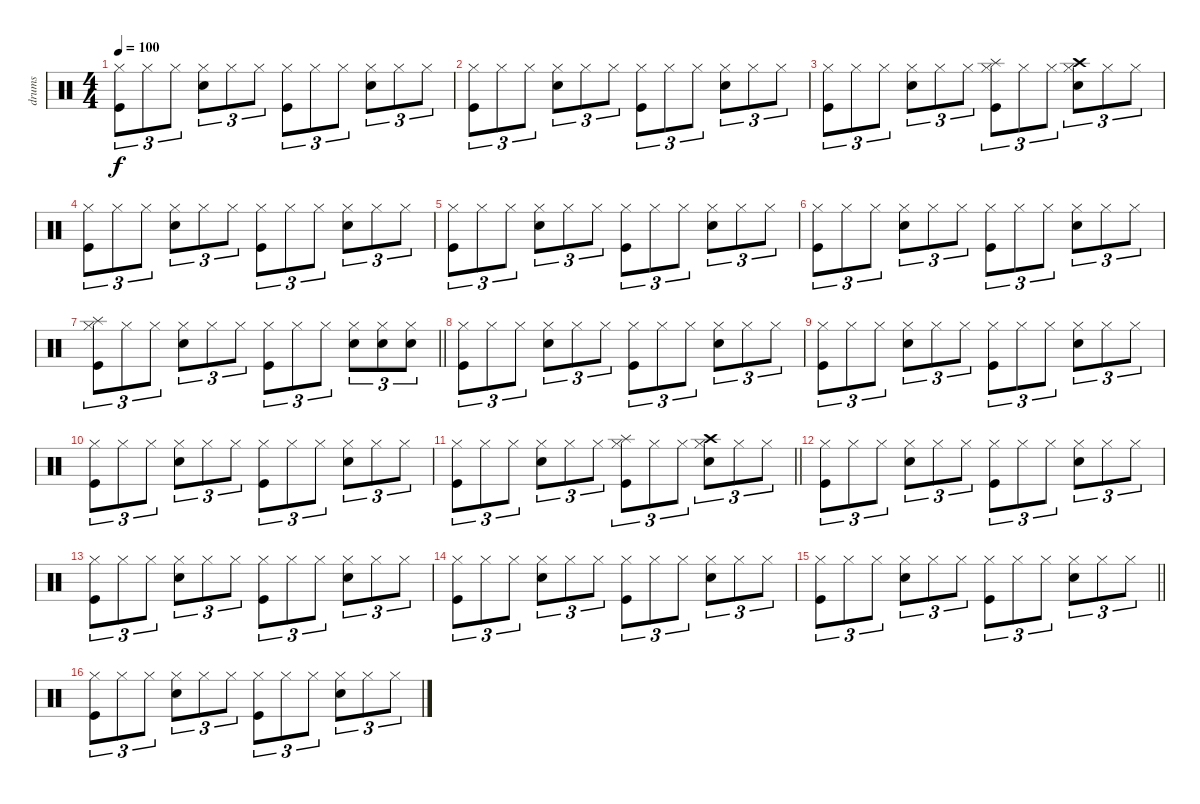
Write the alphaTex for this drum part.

\track ("drums" "drums") {instrument percussion}
\staff {score}
\articulation defaults
\ts (4 4)
\tempo 100
\clef neutral
\ks c
("Hi-Hat (closed)" "Kick (hit)").8{tu (3 2) dy f} "Hi-Hat (closed)".8{tu (3 2)} "Hi-Hat (closed)".8{tu (3 2)} ("Hi-Hat (closed)" "Snare (hit) 2").8{tu (3 2)} "Hi-Hat (closed)".8{tu (3 2)} "Hi-Hat (closed)".8{tu (3 2)} ("Hi-Hat (closed)" "Kick (hit)").8{tu (3 2)} "Hi-Hat (closed)".8{tu (3 2)} "Hi-Hat (closed)".8{tu (3 2)} ("Hi-Hat (closed)" "Snare (hit) 2").8{tu (3 2)} "Hi-Hat (closed)".8{tu (3 2)} "Hi-Hat (closed)".8{tu (3 2)} |
("Hi-Hat (closed)" "Kick (hit)").8{tu (3 2)} "Hi-Hat (closed)".8{tu (3 2)} "Hi-Hat (closed)".8{tu (3 2)} ("Hi-Hat (closed)" "Snare (hit) 2").8{tu (3 2)} "Hi-Hat (closed)".8{tu (3 2)} "Hi-Hat (closed)".8{tu (3 2)} ("Hi-Hat (closed)" "Kick (hit)").8{tu (3 2)} "Hi-Hat (closed)".8{tu (3 2)} "Hi-Hat (closed)".8{tu (3 2)} ("Hi-Hat (closed)" "Snare (hit) 2").8{tu (3 2)} "Hi-Hat (closed)".8{tu (3 2)} "Hi-Hat (closed)".8{tu (3 2)} |
("Hi-Hat (closed)" "Kick (hit)").8{tu (3 2)} "Hi-Hat (closed)".8{tu (3 2)} "Hi-Hat (closed)".8{tu (3 2)} ("Hi-Hat (closed)" "Snare (hit) 2").8{tu (3 2)} "Hi-Hat (closed)".8{tu (3 2)} "Hi-Hat (closed)".8{tu (3 2)} ("Hi-Hat (closed)" "Splash (hit)" "Kick (hit)").8{tu (3 2)} "Hi-Hat (closed)".8{tu (3 2)} "Hi-Hat (closed)".8{tu (3 2)} ("Hi-Hat (closed)" "Crash high (hit)" "Snare (hit) 2").8{tu (3 2)} "Hi-Hat (closed)".8{tu (3 2)} "Hi-Hat (closed)".8{tu (3 2)} |
("Hi-Hat (closed)" "Kick (hit)").8{tu (3 2)} "Hi-Hat (closed)".8{tu (3 2)} "Hi-Hat (closed)".8{tu (3 2)} ("Hi-Hat (closed)" "Snare (hit) 2").8{tu (3 2)} "Hi-Hat (closed)".8{tu (3 2)} "Hi-Hat (closed)".8{tu (3 2)} ("Hi-Hat (closed)" "Kick (hit)").8{tu (3 2)} "Hi-Hat (closed)".8{tu (3 2)} "Hi-Hat (closed)".8{tu (3 2)} ("Hi-Hat (closed)" "Snare (hit) 2").8{tu (3 2)} "Hi-Hat (closed)".8{tu (3 2)} "Hi-Hat (closed)".8{tu (3 2)} |
("Hi-Hat (closed)" "Kick (hit)").8{tu (3 2)} "Hi-Hat (closed)".8{tu (3 2)} "Hi-Hat (closed)".8{tu (3 2)} ("Hi-Hat (closed)" "Snare (hit) 2").8{tu (3 2)} "Hi-Hat (closed)".8{tu (3 2)} "Hi-Hat (closed)".8{tu (3 2)} ("Hi-Hat (closed)" "Kick (hit)").8{tu (3 2)} "Hi-Hat (closed)".8{tu (3 2)} "Hi-Hat (closed)".8{tu (3 2)} ("Hi-Hat (closed)" "Snare (hit) 2").8{tu (3 2)} "Hi-Hat (closed)".8{tu (3 2)} "Hi-Hat (closed)".8{tu (3 2)} |
("Hi-Hat (closed)" "Kick (hit)").8{tu (3 2)} "Hi-Hat (closed)".8{tu (3 2)} "Hi-Hat (closed)".8{tu (3 2)} ("Hi-Hat (closed)" "Snare (hit) 2").8{tu (3 2)} "Hi-Hat (closed)".8{tu (3 2)} "Hi-Hat (closed)".8{tu (3 2)} ("Hi-Hat (closed)" "Kick (hit)").8{tu (3 2)} "Hi-Hat (closed)".8{tu (3 2)} "Hi-Hat (closed)".8{tu (3 2)} ("Hi-Hat (closed)" "Snare (hit) 2").8{tu (3 2)} "Hi-Hat (closed)".8{tu (3 2)} "Hi-Hat (closed)".8{tu (3 2)} |
\barLineRight lightlight
("Hi-Hat (closed)" "Splash (hit)" "Kick (hit)").8{tu (3 2)} "Hi-Hat (closed)".8{tu (3 2)} "Hi-Hat (closed)".8{tu (3 2)} ("Hi-Hat (closed)" "Snare (hit) 2").8{tu (3 2)} "Hi-Hat (closed)".8{tu (3 2)} "Hi-Hat (closed)".8{tu (3 2)} ("Hi-Hat (closed)" "Kick (hit)").8{tu (3 2)} "Hi-Hat (closed)".8{tu (3 2)} "Hi-Hat (closed)".8{tu (3 2)} ("Hi-Hat (closed)" "Snare (hit) 2").8{tu (3 2)} ("Hi-Hat (closed)" "Snare (hit) 2").8{tu (3 2)} ("Hi-Hat (closed)" "Snare (hit) 2").8{tu (3 2)} |
("Hi-Hat (closed)" "Kick (hit)").8{tu (3 2)} "Hi-Hat (closed)".8{tu (3 2)} "Hi-Hat (closed)".8{tu (3 2)} ("Hi-Hat (closed)" "Snare (hit) 2").8{tu (3 2)} "Hi-Hat (closed)".8{tu (3 2)} "Hi-Hat (closed)".8{tu (3 2)} ("Hi-Hat (closed)" "Kick (hit)").8{tu (3 2)} "Hi-Hat (closed)".8{tu (3 2)} "Hi-Hat (closed)".8{tu (3 2)} ("Hi-Hat (closed)" "Snare (hit) 2").8{tu (3 2)} "Hi-Hat (closed)".8{tu (3 2)} "Hi-Hat (closed)".8{tu (3 2)} |
("Hi-Hat (closed)" "Kick (hit)").8{tu (3 2)} "Hi-Hat (closed)".8{tu (3 2)} "Hi-Hat (closed)".8{tu (3 2)} ("Hi-Hat (closed)" "Snare (hit) 2").8{tu (3 2)} "Hi-Hat (closed)".8{tu (3 2)} "Hi-Hat (closed)".8{tu (3 2)} ("Hi-Hat (closed)" "Kick (hit)").8{tu (3 2)} "Hi-Hat (closed)".8{tu (3 2)} "Hi-Hat (closed)".8{tu (3 2)} ("Hi-Hat (closed)" "Snare (hit) 2").8{tu (3 2)} "Hi-Hat (closed)".8{tu (3 2)} "Hi-Hat (closed)".8{tu (3 2)} |
("Hi-Hat (closed)" "Kick (hit)").8{tu (3 2)} "Hi-Hat (closed)".8{tu (3 2)} "Hi-Hat (closed)".8{tu (3 2)} ("Hi-Hat (closed)" "Snare (hit) 2").8{tu (3 2)} "Hi-Hat (closed)".8{tu (3 2)} "Hi-Hat (closed)".8{tu (3 2)} ("Hi-Hat (closed)" "Kick (hit)").8{tu (3 2)} "Hi-Hat (closed)".8{tu (3 2)} "Hi-Hat (closed)".8{tu (3 2)} ("Hi-Hat (closed)" "Snare (hit) 2").8{tu (3 2)} "Hi-Hat (closed)".8{tu (3 2)} "Hi-Hat (closed)".8{tu (3 2)} |
\barLineRight lightlight
("Hi-Hat (closed)" "Kick (hit)").8{tu (3 2)} "Hi-Hat (closed)".8{tu (3 2)} "Hi-Hat (closed)".8{tu (3 2)} ("Hi-Hat (closed)" "Snare (hit) 2").8{tu (3 2)} "Hi-Hat (closed)".8{tu (3 2)} "Hi-Hat (closed)".8{tu (3 2)} ("Hi-Hat (closed)" "Splash (hit)" "Kick (hit)").8{tu (3 2)} "Hi-Hat (closed)".8{tu (3 2)} "Hi-Hat (closed)".8{tu (3 2)} ("Hi-Hat (closed)" "Crash high (hit)" "Snare (hit) 2").8{tu (3 2)} "Hi-Hat (closed)".8{tu (3 2)} "Hi-Hat (closed)".8{tu (3 2)} |
("Hi-Hat (closed)" "Kick (hit)").8{tu (3 2)} "Hi-Hat (closed)".8{tu (3 2)} "Hi-Hat (closed)".8{tu (3 2)} ("Hi-Hat (closed)" "Snare (hit) 2").8{tu (3 2)} "Hi-Hat (closed)".8{tu (3 2)} "Hi-Hat (closed)".8{tu (3 2)} ("Hi-Hat (closed)" "Kick (hit)").8{tu (3 2)} "Hi-Hat (closed)".8{tu (3 2)} "Hi-Hat (closed)".8{tu (3 2)} ("Hi-Hat (closed)" "Snare (hit) 2").8{tu (3 2)} "Hi-Hat (closed)".8{tu (3 2)} "Hi-Hat (closed)".8{tu (3 2)} |
("Hi-Hat (closed)" "Kick (hit)").8{tu (3 2)} "Hi-Hat (closed)".8{tu (3 2)} "Hi-Hat (closed)".8{tu (3 2)} ("Hi-Hat (closed)" "Snare (hit) 2").8{tu (3 2)} "Hi-Hat (closed)".8{tu (3 2)} "Hi-Hat (closed)".8{tu (3 2)} ("Hi-Hat (closed)" "Kick (hit)").8{tu (3 2)} "Hi-Hat (closed)".8{tu (3 2)} "Hi-Hat (closed)".8{tu (3 2)} ("Hi-Hat (closed)" "Snare (hit) 2").8{tu (3 2)} "Hi-Hat (closed)".8{tu (3 2)} "Hi-Hat (closed)".8{tu (3 2)} |
("Hi-Hat (closed)" "Kick (hit)").8{tu (3 2)} "Hi-Hat (closed)".8{tu (3 2)} "Hi-Hat (closed)".8{tu (3 2)} ("Hi-Hat (closed)" "Snare (hit) 2").8{tu (3 2)} "Hi-Hat (closed)".8{tu (3 2)} "Hi-Hat (closed)".8{tu (3 2)} ("Hi-Hat (closed)" "Kick (hit)").8{tu (3 2)} "Hi-Hat (closed)".8{tu (3 2)} "Hi-Hat (closed)".8{tu (3 2)} ("Hi-Hat (closed)" "Snare (hit) 2").8{tu (3 2)} "Hi-Hat (closed)".8{tu (3 2)} "Hi-Hat (closed)".8{tu (3 2)} |
\barLineRight lightlight
("Hi-Hat (closed)" "Kick (hit)").8{tu (3 2)} "Hi-Hat (closed)".8{tu (3 2)} "Hi-Hat (closed)".8{tu (3 2)} ("Hi-Hat (closed)" "Snare (hit) 2").8{tu (3 2)} "Hi-Hat (closed)".8{tu (3 2)} "Hi-Hat (closed)".8{tu (3 2)} ("Hi-Hat (closed)" "Kick (hit)").8{tu (3 2)} "Hi-Hat (closed)".8{tu (3 2)} "Hi-Hat (closed)".8{tu (3 2)} ("Hi-Hat (closed)" "Snare (hit) 2").8{tu (3 2)} "Hi-Hat (closed)".8{tu (3 2)} "Hi-Hat (closed)".8{tu (3 2)} |
("Hi-Hat (closed)" "Kick (hit)").8{tu (3 2)} "Hi-Hat (closed)".8{tu (3 2)} "Hi-Hat (closed)".8{tu (3 2)} ("Hi-Hat (closed)" "Snare (hit) 2").8{tu (3 2)} "Hi-Hat (closed)".8{tu (3 2)} "Hi-Hat (closed)".8{tu (3 2)} ("Hi-Hat (closed)" "Kick (hit)").8{tu (3 2)} "Hi-Hat (closed)".8{tu (3 2)} "Hi-Hat (closed)".8{tu (3 2)} ("Hi-Hat (closed)" "Snare (hit) 2").8{tu (3 2)} "Hi-Hat (closed)".8{tu (3 2)} "Hi-Hat (closed)".8{tu (3 2)}
